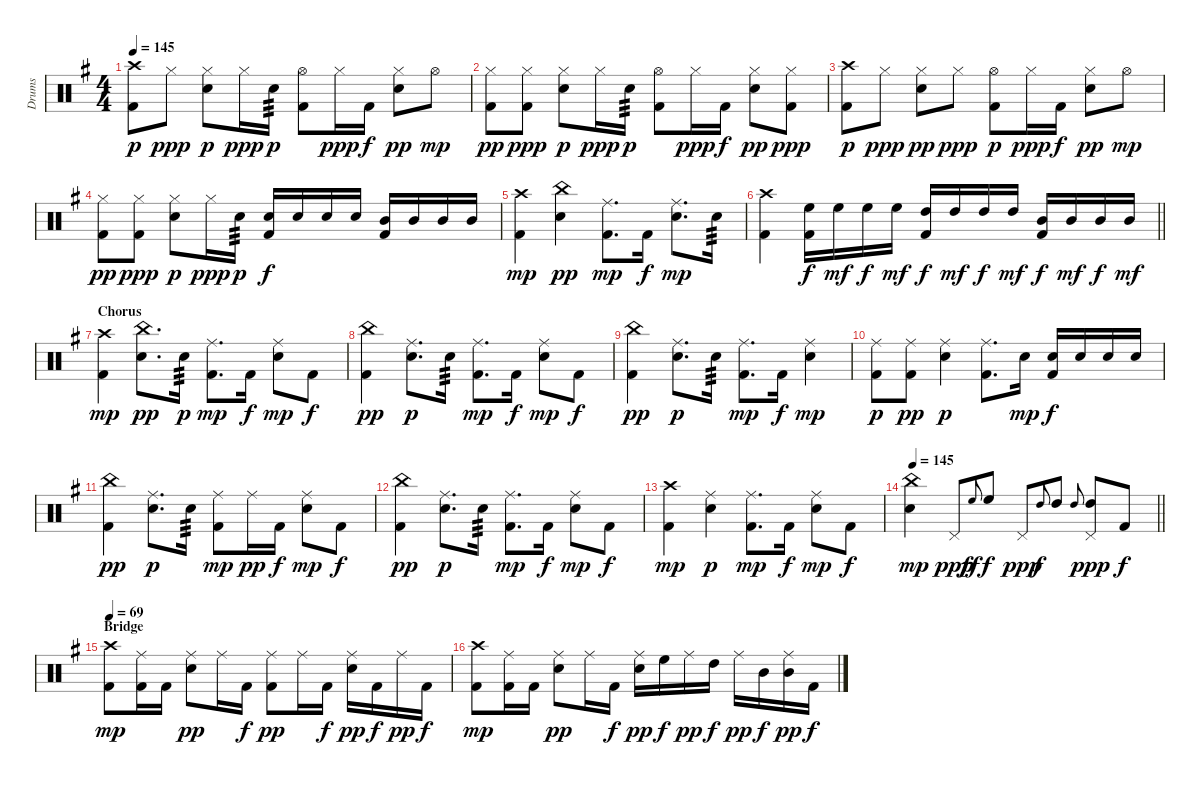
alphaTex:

\track ("Drums" "Drums") {instrument percussion}
\staff {score}
\articulation defaults
\ts (4 4)
\tempo 145
\clef neutral
\ks g
("Crash high (hit)" "Kick (hit) 2").8{dy p} "Hi-Hat (closed)".8{dy ppp} ("Hi-Hat (closed)" "Electric Snare (hit)").8{dy p} "Hi-Hat (closed)".16{dy ppp} "Electric Snare (hit)".16{tp 3 dy p} ("Hi-Hat (open)" "Kick (hit) 2").8 "Hi-Hat (closed)".16{dy ppp} "Kick (hit) 2".16{dy f} ("Hi-Hat (closed)" "Electric Snare (hit)").8{dy pp} "Hi-Hat (open)".8{dy mp} |
("Hi-Hat (closed)" "Kick (hit) 2").8{dy pp} ("Hi-Hat (closed)" "Kick (hit) 2").8{dy ppp} ("Hi-Hat (closed)" "Electric Snare (hit)").8{dy p} "Hi-Hat (closed)".16{dy ppp} "Electric Snare (hit)".16{tp 3 dy p} ("Hi-Hat (open)" "Kick (hit) 2").8 "Hi-Hat (closed)".16{dy ppp} "Kick (hit) 2".16{dy f} ("Hi-Hat (closed)" "Electric Snare (hit)").8{dy pp} ("Hi-Hat (closed)" "Kick (hit) 2").8{dy ppp} |
("Crash high (hit)" "Kick (hit) 2").8{dy p} "Hi-Hat (closed)".8{dy ppp} ("Hi-Hat (closed)" "Electric Snare (hit)").8{dy pp} "Hi-Hat (closed)".8{dy ppp} ("Hi-Hat (open)" "Kick (hit) 2").8{dy p} "Hi-Hat (closed)".16{dy ppp} "Kick (hit) 2".16{dy f} ("Hi-Hat (closed)" "Electric Snare (hit)").8{dy pp} "Hi-Hat (open)".8{dy mp} |
("Hi-Hat (closed)" "Kick (hit) 2").8{dy pp} ("Hi-Hat (closed)" "Kick (hit) 2").8{dy ppp} ("Hi-Hat (closed)" "Electric Snare (hit)").8{dy p} "Hi-Hat (closed)".16{dy ppp} "Electric Snare (hit)".16{tp 3 dy p} ("Electric Snare (hit)" "Kick (hit) 2").16{dy f} "Electric Snare (hit)".16 "Electric Snare (hit)".16 "Electric Snare (hit)".16 ("Mid Tom (hit)" "Kick (hit) 2").16 "Mid Tom (hit)".16 "Mid Tom (hit)".16 "Mid Tom (hit)".16 |
("Kick (hit) 2" "Crash high (hit)").4{dy mp} ("Electric Snare (hit)" "China (hit)").4{dy pp} ("Kick (hit) 2" "Ride (middle)").8{d dy mp} "Kick (hit) 2".16{dy f} ("Electric Snare (hit)" "Ride (middle)").8{d dy mp} "Electric Snare (hit)".16{tp 3} |
\barLineRight lightlight
("Kick (hit) 2" "Crash high (hit)").4 ("High Floor Tom (hit)" "Kick (hit) 2").16{dy f} "High Floor Tom (hit)".16{dy mf} "High Floor Tom (hit)".16{dy f} "High Floor Tom (hit)".16{dy mf} ("High Tom (hit)" "Kick (hit) 2").16{dy f} "High Tom (hit)".16{dy mf} "High Tom (hit)".16{dy f} "High Tom (hit)".16{dy mf} ("Mid Tom (hit)" "Kick (hit) 2").16{dy f} "Mid Tom (hit)".16{dy mf} "Mid Tom (hit)".16{dy f} "Mid Tom (hit)".16{dy mf} |
\section ("" "Chorus")
("Kick (hit) 2" "Crash high (hit)").4{dy mp} ("Electric Snare (hit)" "China (hit)").8{d dy pp} "Electric Snare (hit)".16{tp 3 dy p} ("Kick (hit) 2" "Ride (middle)").8{d dy mp} "Kick (hit) 2".16{dy f} ("Electric Snare (hit)" "Ride (middle)").8{dy mp} "Kick (hit) 2".8{dy f} |
("Kick (hit) 2" "China (hit)").4{dy pp} ("Electric Snare (hit)" "Ride (middle)").8{d dy p} "Electric Snare (hit)".16{tp 3} ("Kick (hit) 2" "Ride (middle)").8{d dy mp} "Kick (hit) 2".16{dy f} ("Electric Snare (hit)" "Ride (middle)").8{dy mp} "Kick (hit) 2".8{dy f} |
("Kick (hit) 2" "China (hit)").4{dy pp} ("Electric Snare (hit)" "Ride (middle)").8{d dy p} "Electric Snare (hit)".16{tp 3} ("Kick (hit) 2" "Ride (middle)").8{d dy mp} "Kick (hit) 2".16{dy f} ("Electric Snare (hit)" "Ride (middle)").4{dy mp} |
("Kick (hit) 2" "Ride (middle)").8{dy p} ("Kick (hit) 2" "Ride (middle)").8{dy pp} ("Electric Snare (hit)" "Ride (middle)").4{dy p} ("Kick (hit) 2" "Ride (middle)").8{d} "Electric Snare (hit)".16{dy mp} ("Electric Snare (hit)" "Kick (hit) 2").16{dy f} "Electric Snare (hit)".16 "Electric Snare (hit)".16 "Electric Snare (hit)".16 |
("Kick (hit) 2" "China (hit)").4{dy pp} ("Electric Snare (hit)" "Ride (middle)").8{d dy p} "Electric Snare (hit)".16{tp 3} ("Kick (hit) 2" "Ride (middle)").8{dy mp} "Ride (middle)".16{dy pp} "Kick (hit) 2".16{dy f} ("Electric Snare (hit)" "Ride (middle)").8{dy mp} "Kick (hit) 2".8{dy f} |
("Kick (hit) 2" "China (hit)").4{dy pp} ("Electric Snare (hit)" "Ride (middle)").8{d dy p} "Electric Snare (hit)".16{tp 3} ("Kick (hit) 2" "Ride (middle)").8{d dy mp} "Kick (hit) 2".16{dy f} ("Electric Snare (hit)" "Ride (middle)").8{dy mp} "Kick (hit) 2".8{dy f} |
("Kick (hit) 2" "Crash high (hit)").4{dy mp} ("Electric Snare (hit)" "Ride (middle)").4{dy p} ("Kick (hit) 2" "Ride (middle)").8{d dy mp} "Kick (hit) 2".16{dy f} ("Electric Snare (hit)" "Ride (middle)").8{dy mp} "Kick (hit) 2".8{dy f} |
\tempo 145
\barLineRight lightlight
("Electric Snare (hit)" "China (hit)").4{dy mp} "Pedal Hi-Hat (hit)".8{dy ppp} "High Floor Tom (hit)".8{gr onbeat dy ff} "High Floor Tom (hit)".8{dy f} "Pedal Hi-Hat (hit)".8{dy ppp} "High Tom (hit)".8{gr onbeat dy f} "High Tom (hit)".8 "High Tom (hit)".8{gr onbeat} ("High Tom (hit)" "Pedal Hi-Hat (hit)").8{dy ppp} "Kick (hit) 2".8{dy f} |
\section ("" "Bridge")
\tempo 69
("Crash high (hit)" "Kick (hit) 2").8{dy mp} ("Ride (middle)" "Kick (hit) 2").16 "Kick (hit) 2".16 ("Ride (middle)" "Electric Snare (hit)").8{dy pp} "Ride (middle)".16 "Kick (hit) 2".16{dy f} ("Ride (middle)" "Kick (hit) 2").8{dy pp} "Ride (middle)".16 "Kick (hit) 2".16{dy f} ("Ride (middle)" "Electric Snare (hit)").16{dy pp} "Kick (hit) 2".16{dy f} "Ride (middle)".16{dy pp} "Kick (hit) 2".16{dy f} |
("Crash high (hit)" "Kick (hit) 2").8{dy mp} ("Ride (middle)" "Kick (hit) 2").16 "Kick (hit) 2".16 ("Ride (middle)" "Electric Snare (hit)").8{dy pp} "Ride (middle)".16 "Kick (hit) 2".16{dy f} ("Ride (middle)" "Electric Snare (hit)").16{dy pp} "High Floor Tom (hit)".16{dy f} "Ride (middle)".16{dy pp} "High Tom (hit)".16{dy f} "Ride (middle)".16{dy pp} "Mid Tom (hit)".16{dy f} ("Ride (middle)" "Mid Tom (hit)").16{dy pp} "Kick (hit) 2".16{dy f}
